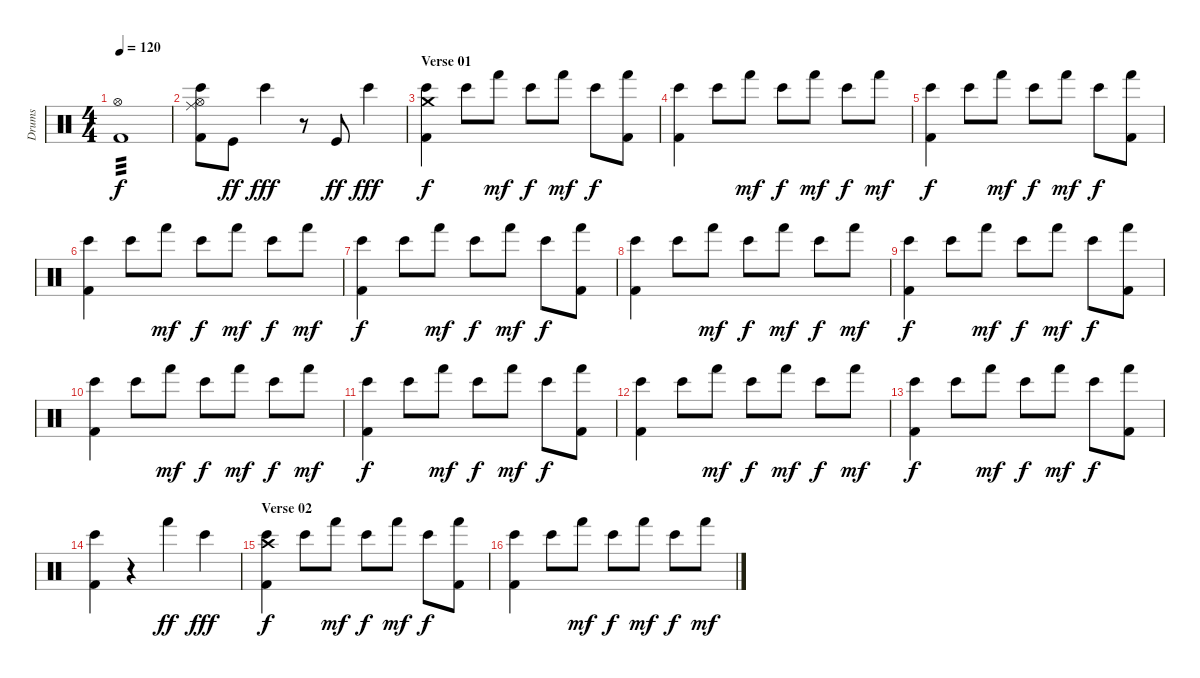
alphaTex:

\track ("Drums" "Drums") {instrument percussion}
\staff {score}
\articulation defaults
\ts (4 4)
\tempo 120
\clef neutral
\ks c
("Hi-Hat (open)" "Kick (hit) 2").1{tp 3 dy f volume 4} |
("Hi-Hat (open)" "Kick (hit) 2" "Bongo High (hit)" "Ride (middle)").8 "Kick (hit)".8{dy ff} "Bongo High (hit)".4{dy fff} r.8 "Kick (hit)".8{dy ff} "Bongo High (hit)".4{dy fff volume 8} |
\section ("" "Verse 01")
("Kick (hit) 2" "Bongo High (hit)" "Crash medium (hit)").4{dy f} "Bongo High (hit)".8 "Hand (hit)".8{dy mf} "Bongo High (hit)".8{dy f} "Hand (hit)".8{dy mf} "Bongo High (hit)".8{dy f} ("Kick (hit) 2" "Hand (hit)").8 |
("Kick (hit) 2" "Bongo High (hit)").4 "Bongo High (hit)".8 "Hand (hit)".8{dy mf} "Bongo High (hit)".8{dy f} "Hand (hit)".8{dy mf} "Bongo High (hit)".8{dy f} "Hand (hit)".8{dy mf} |
("Kick (hit) 2" "Bongo High (hit)").4{dy f} "Bongo High (hit)".8 "Hand (hit)".8{dy mf} "Bongo High (hit)".8{dy f} "Hand (hit)".8{dy mf} "Bongo High (hit)".8{dy f} ("Kick (hit) 2" "Hand (hit)").8 |
("Kick (hit) 2" "Bongo High (hit)").4 "Bongo High (hit)".8 "Hand (hit)".8{dy mf} "Bongo High (hit)".8{dy f} "Hand (hit)".8{dy mf} "Bongo High (hit)".8{dy f} "Hand (hit)".8{dy mf} |
("Kick (hit) 2" "Bongo High (hit)").4{dy f} "Bongo High (hit)".8 "Hand (hit)".8{dy mf} "Bongo High (hit)".8{dy f} "Hand (hit)".8{dy mf} "Bongo High (hit)".8{dy f} ("Kick (hit) 2" "Hand (hit)").8 |
("Kick (hit) 2" "Bongo High (hit)").4 "Bongo High (hit)".8 "Hand (hit)".8{dy mf} "Bongo High (hit)".8{dy f} "Hand (hit)".8{dy mf} "Bongo High (hit)".8{dy f} "Hand (hit)".8{dy mf} |
("Kick (hit) 2" "Bongo High (hit)").4{dy f} "Bongo High (hit)".8 "Hand (hit)".8{dy mf} "Bongo High (hit)".8{dy f} "Hand (hit)".8{dy mf} "Bongo High (hit)".8{dy f} ("Kick (hit) 2" "Hand (hit)").8 |
("Kick (hit) 2" "Bongo High (hit)").4 "Bongo High (hit)".8 "Hand (hit)".8{dy mf} "Bongo High (hit)".8{dy f} "Hand (hit)".8{dy mf} "Bongo High (hit)".8{dy f} "Hand (hit)".8{dy mf} |
("Kick (hit) 2" "Bongo High (hit)").4{dy f} "Bongo High (hit)".8 "Hand (hit)".8{dy mf} "Bongo High (hit)".8{dy f} "Hand (hit)".8{dy mf} "Bongo High (hit)".8{dy f} ("Kick (hit) 2" "Hand (hit)").8 |
("Kick (hit) 2" "Bongo High (hit)").4 "Bongo High (hit)".8 "Hand (hit)".8{dy mf} "Bongo High (hit)".8{dy f} "Hand (hit)".8{dy mf} "Bongo High (hit)".8{dy f} "Hand (hit)".8{dy mf} |
("Kick (hit) 2" "Bongo High (hit)").4{dy f} "Bongo High (hit)".8 "Hand (hit)".8{dy mf} "Bongo High (hit)".8{dy f} "Hand (hit)".8{dy mf} "Bongo High (hit)".8{dy f} ("Kick (hit) 2" "Hand (hit)").8 |
("Kick (hit) 2" "Bongo High (hit)").4 r.4 "Hand (hit)".4{dy ff} "Bongo High (hit)".4{dy fff} |
\section ("" "Verse 02")
("Kick (hit) 2" "Bongo High (hit)" "Crash high (hit)").4{dy f} "Bongo High (hit)".8 "Hand (hit)".8{dy mf} "Bongo High (hit)".8{dy f} "Hand (hit)".8{dy mf} "Bongo High (hit)".8{dy f} ("Kick (hit) 2" "Hand (hit)").8 |
("Kick (hit) 2" "Bongo High (hit)").4 "Bongo High (hit)".8 "Hand (hit)".8{dy mf} "Bongo High (hit)".8{dy f} "Hand (hit)".8{dy mf} "Bongo High (hit)".8{dy f} "Hand (hit)".8{dy mf}
